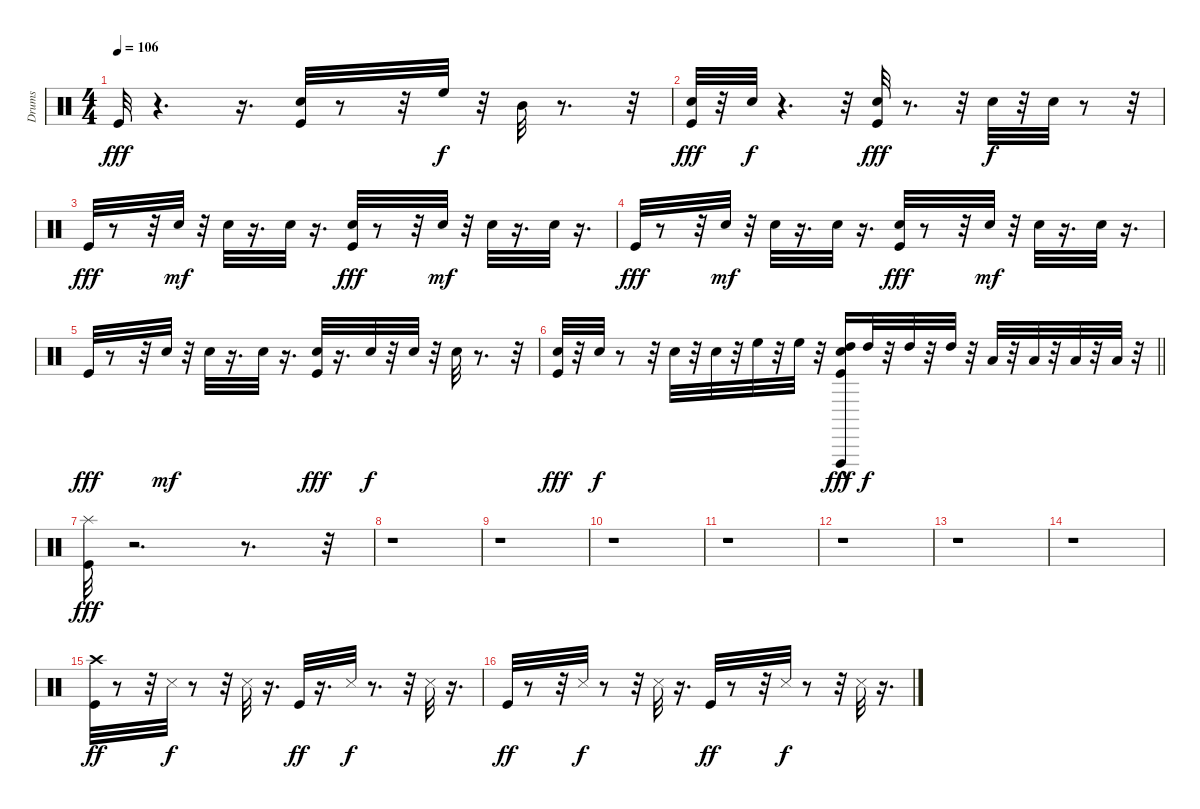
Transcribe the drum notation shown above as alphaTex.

\track ("Drums" "Drums") {instrument percussion}
\staff {score}
\articulation defaults
\ts (4 4)
\tempo 106
\clef neutral
\ks c "Kick (hit)".32{dy fff}
r.4{d} r.16{d} ("Kick (hit)" "Electric Snare (hit)").32 r.8 r.32 "High Floor Tom (hit)".32{dy f} r.32 "Mid Tom (hit)".32 r.8{d} r.32 |
("Snare (hit) 2" "Kick (hit)").32{dy fff} r.32 "Snare (hit) 2".32{dy f} r.4{d} r.32 ("Kick (hit)" "Electric Snare (hit)").32{dy fff} r.8{d} r.32 "Snare (hit) 2".32{dy f} r.32 "Snare (hit) 2".32 r.8 r.32 |
"Kick (hit)".32{dy fff} r.8 r.32 "Snare (hit) 2".32{dy mf} r.32 "Snare (hit) 2".32 r.16{d} "Snare (hit) 2".32 r.16{d} ("Kick (hit)" "Electric Snare (hit)").32{dy fff} r.8 r.32 "Snare (hit) 2".32{dy mf} r.32 "Snare (hit) 2".32 r.16{d} "Snare (hit) 2".32 r.16{d} |
"Kick (hit)".32{dy fff} r.8 r.32 "Snare (hit) 2".32{dy mf} r.32 "Snare (hit) 2".32 r.16{d} "Snare (hit) 2".32 r.16{d} ("Kick (hit)" "Electric Snare (hit)").32{dy fff} r.8 r.32 "Snare (hit) 2".32{dy mf} r.32 "Snare (hit) 2".32 r.16{d} "Snare (hit) 2".32 r.16{d} |
"Kick (hit)".32{dy fff} r.8 r.32 "Snare (hit) 2".32{dy mf} r.32 "Snare (hit) 2".32 r.16{d} "Snare (hit) 2".32 r.16{d} ("Electric Snare (hit)" "Kick (hit)").32{dy fff} r.16{d} "Electric Snare (hit)".32{dy f} r.32 "Electric Snare (hit)".32 r.32 "Electric Snare (hit)".32 r.8{d} r.32 |
\barLineRight lightlight
("Electric Snare (hit)" "Kick (hit)").32{dy fff} r.32 "Electric Snare (hit)".32{dy f} r.8 r.32 "Electric Snare (hit)".32 r.32 "Electric Snare (hit)".32 r.32 "High Floor Tom (hit)".32 r.32 "High Floor Tom (hit)".32 r.32 ("Vibraslap (hit)"{hac} "High Tom (hit)" "Kick (hit)" "Electric Snare (hit)").16{dy fff} "High Tom (hit)".32{dy f} r.32 "High Tom (hit)".32 r.32 "High Tom (hit)".32 r.32 "Low Tom (hit)".32 r.32 "Low Tom (hit)".32 r.32 "Low Floor Tom (hit)".32 r.32 "Low Floor Tom (hit)".32 r.32 |
("Splash (hit)" "Kick (hit)").32{dy fff} r.2{d} r.8{d} r.32 |
r.1 |
r.1 |
r.1 |
r.1 |
r.1 |
r.1 |
r.1 |
("Crash high (hit)" "Kick (hit)").32{dy ff} r.8 r.32 "Snare (side stick) 3".32{dy f} r.8 r.32 "Snare (side stick) 3".32 r.16{d} "Kick (hit)".32{dy ff} r.16{d} "Snare (side stick) 3".32{dy f} r.8{d} r.32 "Snare (side stick) 3".32 r.16{d} |
"Kick (hit)".32{dy ff} r.8 r.32 "Snare (side stick) 3".32{dy f} r.8 r.32 "Snare (side stick) 3".32 r.16{d} "Kick (hit)".32{dy ff} r.8 r.32 "Snare (side stick) 3".32{dy f} r.8 r.32 "Snare (side stick) 3".32 r.16{d}
